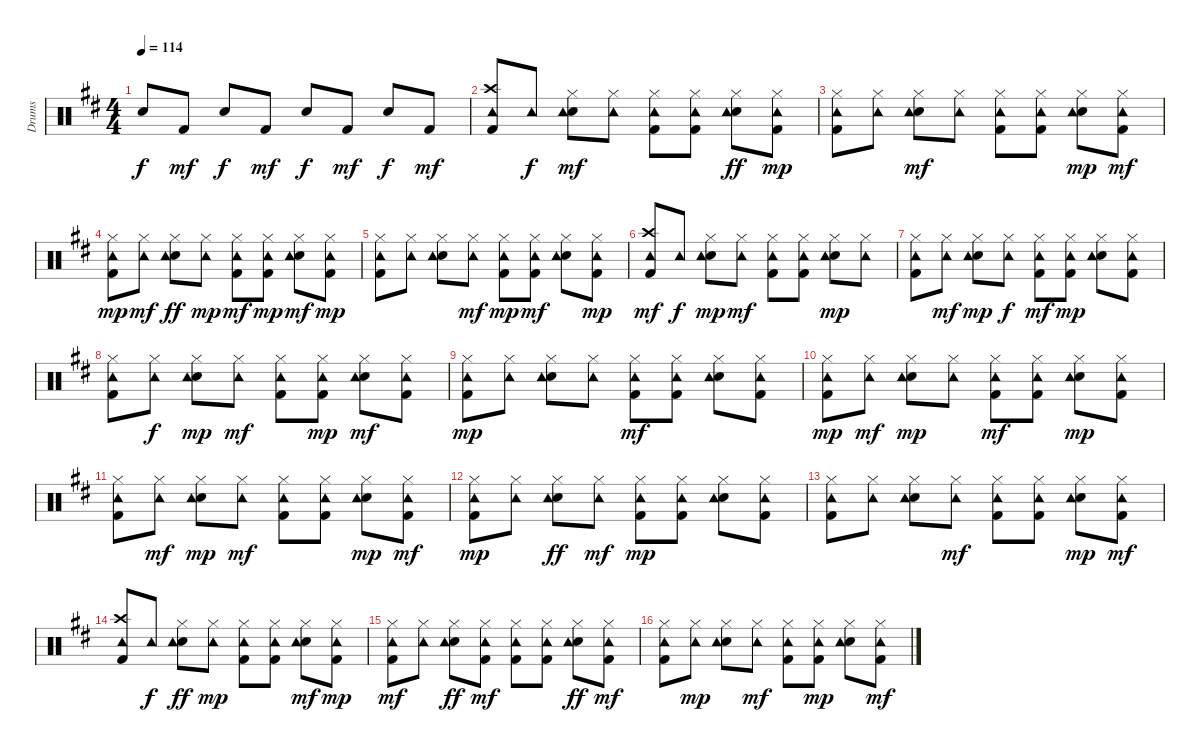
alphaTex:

\track ("Drums" "Drums") {instrument percussion}
\staff {score}
\articulation defaults
\ts (4 4)
\tempo 114
\clef neutral
\ks d "Snare (hit) 2".8{dy f} "Kick (hit) 2".8{dy mf} "Snare (hit) 2".8{dy f} "Kick (hit) 2".8{dy mf} "Snare (hit) 2".8{dy f} "Kick (hit) 2".8{dy mf} "Snare (hit) 2".8{dy f} "Kick (hit) 2".8{dy mf}
|
("Kick (hit) 2" "Crash high (hit)" "Tambourine (hit)").8 "Tambourine (hit)".8{dy f} ("Snare (hit) 2" "Hi-Hat (closed)" "Tambourine (hit)").8{dy mf} ("Hi-Hat (closed)" "Tambourine (hit)").8 ("Kick (hit) 2" "Hi-Hat (closed)" "Tambourine (hit)").8 ("Kick (hit) 2" "Hi-Hat (closed)" "Tambourine (hit)").8 ("Snare (hit) 2" "Hi-Hat (closed)" "Tambourine (hit)").8{dy ff} ("Kick (hit) 2" "Hi-Hat (closed)" "Tambourine (hit)").8{dy mp} |
("Kick (hit) 2" "Hi-Hat (closed)" "Tambourine (hit)").8 ("Hi-Hat (closed)" "Tambourine (hit)").8 ("Snare (hit) 2" "Hi-Hat (closed)" "Tambourine (hit)").8{dy mf} ("Hi-Hat (closed)" "Tambourine (hit)").8 ("Kick (hit) 2" "Hi-Hat (closed)" "Tambourine (hit)").8 ("Kick (hit) 2" "Hi-Hat (closed)" "Tambourine (hit)").8 ("Snare (hit) 2" "Hi-Hat (closed)" "Tambourine (hit)").8{dy mp} ("Kick (hit) 2" "Hi-Hat (closed)" "Tambourine (hit)").8{dy mf} |
("Kick (hit) 2" "Hi-Hat (closed)" "Tambourine (hit)").8{dy mp} ("Hi-Hat (closed)" "Tambourine (hit)").8{dy mf} ("Snare (hit) 2" "Hi-Hat (closed)" "Tambourine (hit)").8{dy ff} ("Hi-Hat (closed)" "Tambourine (hit)").8{dy mp} ("Kick (hit) 2" "Hi-Hat (closed)" "Tambourine (hit)").8{dy mf} ("Kick (hit) 2" "Hi-Hat (closed)" "Tambourine (hit)").8{dy mp} ("Snare (hit) 2" "Hi-Hat (closed)" "Tambourine (hit)").8{dy mf} ("Kick (hit) 2" "Hi-Hat (closed)" "Tambourine (hit)").8{dy mp} |
("Kick (hit) 2" "Hi-Hat (closed)" "Tambourine (hit)").8 ("Hi-Hat (closed)" "Tambourine (hit)").8 ("Snare (hit) 2" "Hi-Hat (closed)" "Tambourine (hit)").8 ("Hi-Hat (closed)" "Tambourine (hit)").8{dy mf} ("Kick (hit) 2" "Hi-Hat (closed)" "Tambourine (hit)").8{dy mp} ("Kick (hit) 2" "Hi-Hat (closed)" "Tambourine (hit)").8{dy mf} ("Snare (hit) 2" "Hi-Hat (closed)" "Tambourine (hit)").8 ("Kick (hit) 2" "Hi-Hat (closed)" "Tambourine (hit)").8{dy mp} |
("Kick (hit) 2" "Crash high (hit)" "Tambourine (hit)").8{dy mf} "Tambourine (hit)".8{dy f} ("Snare (hit) 2" "Hi-Hat (closed)" "Tambourine (hit)").8{dy mp} ("Hi-Hat (closed)" "Tambourine (hit)").8{dy mf} ("Kick (hit) 2" "Hi-Hat (closed)" "Tambourine (hit)").8 ("Kick (hit) 2" "Hi-Hat (closed)" "Tambourine (hit)").8 ("Snare (hit) 2" "Hi-Hat (closed)" "Tambourine (hit)").8{dy mp} ("Hi-Hat (closed)" "Tambourine (hit)").8 |
("Kick (hit) 2" "Hi-Hat (closed)" "Tambourine (hit)").8 ("Hi-Hat (closed)" "Tambourine (hit)").8{dy mf} ("Snare (hit) 2" "Hi-Hat (closed)" "Tambourine (hit)").8{dy mp} ("Hi-Hat (closed)" "Tambourine (hit)").8{dy f} ("Kick (hit) 2" "Hi-Hat (closed)" "Tambourine (hit)").8{dy mf} ("Kick (hit) 2" "Hi-Hat (closed)" "Tambourine (hit)").8{dy mp} ("Snare (hit) 2" "Hi-Hat (closed)" "Tambourine (hit)").8 ("Kick (hit) 2" "Hi-Hat (closed)" "Tambourine (hit)").8 |
("Kick (hit) 2" "Hi-Hat (closed)" "Tambourine (hit)").8 ("Hi-Hat (closed)" "Tambourine (hit)").8{dy f} ("Snare (hit) 2" "Hi-Hat (closed)" "Tambourine (hit)").8{dy mp} ("Hi-Hat (closed)" "Tambourine (hit)").8{dy mf} ("Kick (hit) 2" "Hi-Hat (closed)" "Tambourine (hit)").8 ("Kick (hit) 2" "Hi-Hat (closed)" "Tambourine (hit)").8{dy mp} ("Snare (hit) 2" "Hi-Hat (closed)" "Tambourine (hit)").8{dy mf} ("Kick (hit) 2" "Hi-Hat (closed)" "Tambourine (hit)").8 |
("Kick (hit) 2" "Hi-Hat (closed)" "Tambourine (hit)").8{dy mp} ("Hi-Hat (closed)" "Tambourine (hit)").8 ("Snare (hit) 2" "Hi-Hat (closed)" "Tambourine (hit)").8 ("Hi-Hat (closed)" "Tambourine (hit)").8 ("Kick (hit) 2" "Hi-Hat (closed)" "Tambourine (hit)").8{dy mf} ("Kick (hit) 2" "Hi-Hat (closed)" "Tambourine (hit)").8 ("Snare (hit) 2" "Hi-Hat (closed)" "Tambourine (hit)").8 ("Kick (hit) 2" "Hi-Hat (closed)" "Tambourine (hit)").8 |
("Kick (hit) 2" "Hi-Hat (closed)" "Tambourine (hit)").8{dy mp} ("Hi-Hat (closed)" "Tambourine (hit)").8{dy mf} ("Snare (hit) 2" "Hi-Hat (closed)" "Tambourine (hit)").8{dy mp} ("Hi-Hat (closed)" "Tambourine (hit)").8 ("Kick (hit) 2" "Hi-Hat (closed)" "Tambourine (hit)").8{dy mf} ("Kick (hit) 2" "Hi-Hat (closed)" "Tambourine (hit)").8 ("Snare (hit) 2" "Hi-Hat (closed)" "Tambourine (hit)").8{dy mp} ("Kick (hit) 2" "Hi-Hat (closed)" "Tambourine (hit)").8 |
("Kick (hit) 2" "Hi-Hat (closed)" "Tambourine (hit)").8 ("Hi-Hat (closed)" "Tambourine (hit)").8{dy mf} ("Snare (hit) 2" "Hi-Hat (closed)" "Tambourine (hit)").8{dy mp} ("Hi-Hat (closed)" "Tambourine (hit)").8{dy mf} ("Kick (hit) 2" "Hi-Hat (closed)" "Tambourine (hit)").8 ("Kick (hit) 2" "Hi-Hat (closed)" "Tambourine (hit)").8 ("Snare (hit) 2" "Hi-Hat (closed)" "Tambourine (hit)").8{dy mp} ("Kick (hit) 2" "Hi-Hat (closed)" "Tambourine (hit)").8{dy mf} |
("Kick (hit) 2" "Hi-Hat (closed)" "Tambourine (hit)").8{dy mp} ("Hi-Hat (closed)" "Tambourine (hit)").8 ("Snare (hit) 2" "Hi-Hat (closed)" "Tambourine (hit)").8{dy ff} ("Hi-Hat (closed)" "Tambourine (hit)").8{dy mf} ("Kick (hit) 2" "Hi-Hat (closed)" "Tambourine (hit)").8{dy mp} ("Kick (hit) 2" "Hi-Hat (closed)" "Tambourine (hit)").8 ("Snare (hit) 2" "Hi-Hat (closed)" "Tambourine (hit)").8 ("Kick (hit) 2" "Hi-Hat (closed)" "Tambourine (hit)").8 |
("Kick (hit) 2" "Hi-Hat (closed)" "Tambourine (hit)").8 ("Hi-Hat (closed)" "Tambourine (hit)").8 ("Snare (hit) 2" "Hi-Hat (closed)" "Tambourine (hit)").8 ("Hi-Hat (closed)" "Tambourine (hit)").8{dy mf} ("Kick (hit) 2" "Hi-Hat (closed)" "Tambourine (hit)").8 ("Kick (hit) 2" "Hi-Hat (closed)" "Tambourine (hit)").8 ("Snare (hit) 2" "Hi-Hat (closed)" "Tambourine (hit)").8{dy mp} ("Kick (hit) 2" "Hi-Hat (closed)" "Tambourine (hit)").8{dy mf} |
("Kick (hit) 2" "Crash high (hit)" "Tambourine (hit)").8 "Tambourine (hit)".8{dy f} ("Snare (hit) 2" "Hi-Hat (closed)" "Tambourine (hit)").8{dy ff} ("Hi-Hat (closed)" "Tambourine (hit)").8{dy mp} ("Kick (hit) 2" "Hi-Hat (closed)" "Tambourine (hit)").8 ("Kick (hit) 2" "Hi-Hat (closed)" "Tambourine (hit)").8 ("Snare (hit) 2" "Hi-Hat (closed)" "Tambourine (hit)").8{dy mf} ("Kick (hit) 2" "Hi-Hat (closed)" "Tambourine (hit)").8{dy mp} |
("Kick (hit) 2" "Hi-Hat (closed)" "Tambourine (hit)").8{dy mf} ("Hi-Hat (closed)" "Tambourine (hit)").8 ("Snare (hit) 2" "Hi-Hat (closed)" "Tambourine (hit)").8{dy ff} ("Kick (hit) 2" "Hi-Hat (closed)" "Tambourine (hit)").8{dy mf} ("Kick (hit) 2" "Hi-Hat (closed)" "Tambourine (hit)").8 ("Kick (hit) 2" "Hi-Hat (closed)" "Tambourine (hit)").8 ("Snare (hit) 2" "Hi-Hat (closed)" "Tambourine (hit)").8{dy ff} ("Kick (hit) 2" "Hi-Hat (closed)" "Tambourine (hit)").8{dy mf} |
("Kick (hit) 2" "Hi-Hat (closed)" "Tambourine (hit)").8 ("Hi-Hat (closed)" "Tambourine (hit)").8{dy mp} ("Snare (hit) 2" "Hi-Hat (closed)" "Tambourine (hit)").8 ("Hi-Hat (closed)" "Tambourine (hit)").8{dy mf} ("Kick (hit) 2" "Hi-Hat (closed)" "Tambourine (hit)").8 ("Kick (hit) 2" "Hi-Hat (closed)" "Tambourine (hit)").8{dy mp} ("Snare (hit) 2" "Hi-Hat (closed)" "Tambourine (hit)").8 ("Kick (hit) 2" "Hi-Hat (closed)" "Tambourine (hit)").8{dy mf}
